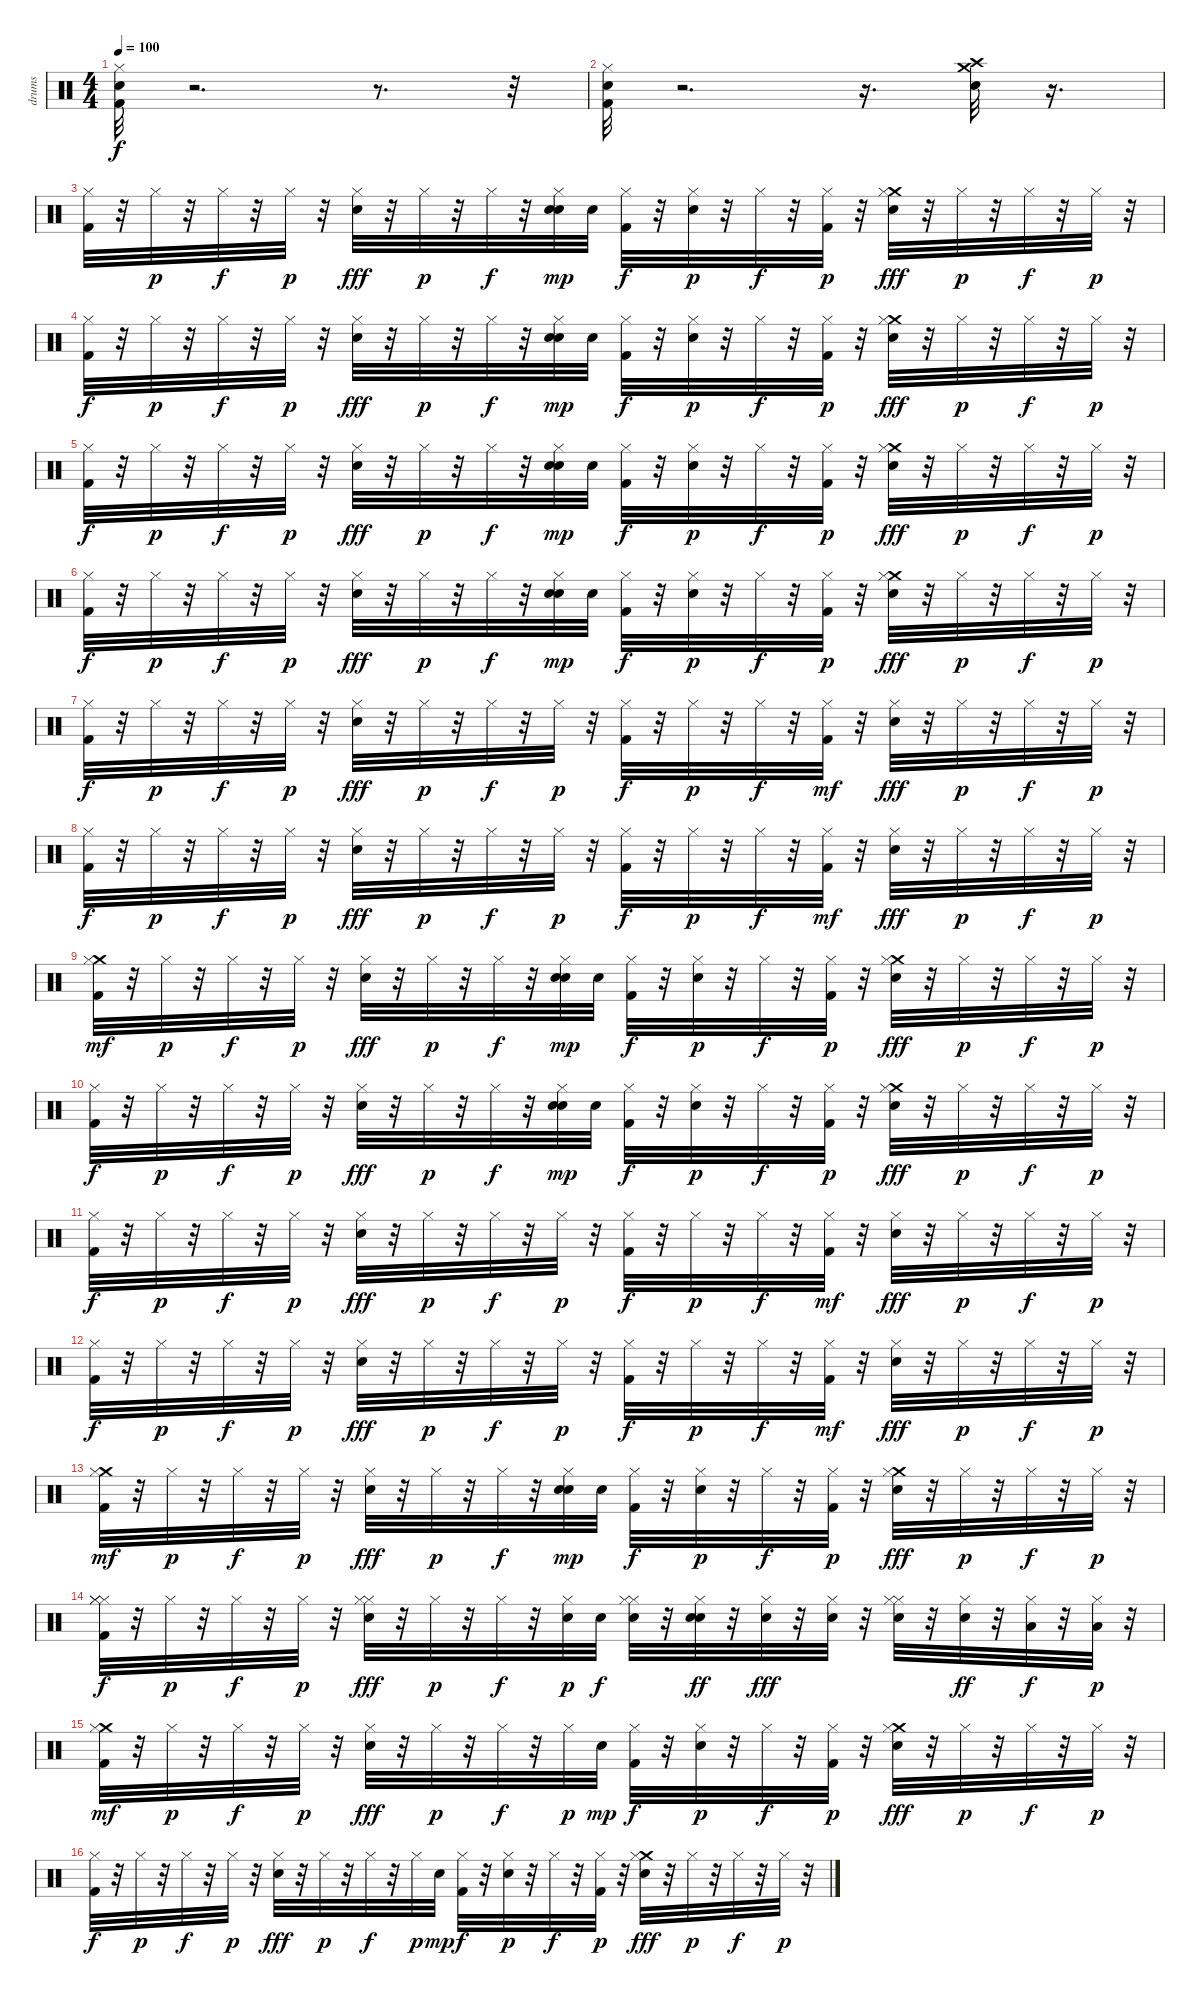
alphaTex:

\track ("drums" "drums") {instrument percussion}
\staff {score}
\articulation defaults
\ts (4 4)
\tempo 100
\clef neutral
\ks c
("Kick (hit) 2" "Electric Snare (hit)" "Hi-Hat (closed)").32{dy f} r.2{d} r.8{d} r.32 |
("Kick (hit) 2" "Electric Snare (hit)" "Hi-Hat (closed)").32 r.2{d} r.16{d} ("Crash medium (hit)" "Electric Snare (hit)" "Crash high (hit)").32 r.16{d} |
("Hi-Hat (closed)" "Kick (hit) 2").32 r.32 "Hi-Hat (closed)".32{dy p} r.32 "Hi-Hat (closed)".32{dy f} r.32 "Hi-Hat (closed)".32{dy p} r.32 ("Hi-Hat (closed)" "Electric Snare (hit)").32{dy fff} r.32 "Hi-Hat (closed)".32{dy p} r.32 "Hi-Hat (closed)".32{dy f} r.32 ("Hi-Hat (closed)" "Electric Snare (hit)" "Electric Snare (hit)").32{dy mp} "Electric Snare (hit)".32 ("Hi-Hat (closed)" "Kick (hit) 2").32{dy f} r.32 ("Hi-Hat (closed)" "Electric Snare (hit)").32{dy p} r.32 "Hi-Hat (closed)".32{dy f} r.32 ("Hi-Hat (closed)" "Kick (hit) 2").32{dy p} r.32 ("Crash medium (hit)" "Hi-Hat (closed)" "Electric Snare (hit)").32{dy fff} r.32 "Hi-Hat (closed)".32{dy p} r.32 "Hi-Hat (closed)".32{dy f} r.32 "Hi-Hat (closed)".32{dy p} r.32 |
("Hi-Hat (closed)" "Kick (hit) 2").32{dy f} r.32 "Hi-Hat (closed)".32{dy p} r.32 "Hi-Hat (closed)".32{dy f} r.32 "Hi-Hat (closed)".32{dy p} r.32 ("Hi-Hat (closed)" "Electric Snare (hit)").32{dy fff} r.32 "Hi-Hat (closed)".32{dy p} r.32 "Hi-Hat (closed)".32{dy f} r.32 ("Hi-Hat (closed)" "Electric Snare (hit)" "Electric Snare (hit)").32{dy mp} "Electric Snare (hit)".32 ("Hi-Hat (closed)" "Kick (hit) 2").32{dy f} r.32 ("Hi-Hat (closed)" "Electric Snare (hit)").32{dy p} r.32 "Hi-Hat (closed)".32{dy f} r.32 ("Hi-Hat (closed)" "Kick (hit) 2").32{dy p} r.32 ("Crash medium (hit)" "Hi-Hat (closed)" "Electric Snare (hit)").32{dy fff} r.32 "Hi-Hat (closed)".32{dy p} r.32 "Hi-Hat (closed)".32{dy f} r.32 "Hi-Hat (closed)".32{dy p} r.32 |
("Hi-Hat (closed)" "Kick (hit) 2").32{dy f} r.32 "Hi-Hat (closed)".32{dy p} r.32 "Hi-Hat (closed)".32{dy f} r.32 "Hi-Hat (closed)".32{dy p} r.32 ("Hi-Hat (closed)" "Electric Snare (hit)").32{dy fff} r.32 "Hi-Hat (closed)".32{dy p} r.32 "Hi-Hat (closed)".32{dy f} r.32 ("Hi-Hat (closed)" "Electric Snare (hit)" "Electric Snare (hit)").32{dy mp} "Electric Snare (hit)".32 ("Hi-Hat (closed)" "Kick (hit) 2").32{dy f} r.32 ("Hi-Hat (closed)" "Electric Snare (hit)").32{dy p} r.32 "Hi-Hat (closed)".32{dy f} r.32 ("Hi-Hat (closed)" "Kick (hit) 2").32{dy p} r.32 ("Crash medium (hit)" "Hi-Hat (closed)" "Electric Snare (hit)").32{dy fff} r.32 "Hi-Hat (closed)".32{dy p} r.32 "Hi-Hat (closed)".32{dy f} r.32 "Hi-Hat (closed)".32{dy p} r.32 |
("Hi-Hat (closed)" "Kick (hit) 2").32{dy f} r.32 "Hi-Hat (closed)".32{dy p} r.32 "Hi-Hat (closed)".32{dy f} r.32 "Hi-Hat (closed)".32{dy p} r.32 ("Hi-Hat (closed)" "Electric Snare (hit)").32{dy fff} r.32 "Hi-Hat (closed)".32{dy p} r.32 "Hi-Hat (closed)".32{dy f} r.32 ("Hi-Hat (closed)" "Electric Snare (hit)" "Electric Snare (hit)").32{dy mp} "Electric Snare (hit)".32 ("Hi-Hat (closed)" "Kick (hit) 2").32{dy f} r.32 ("Hi-Hat (closed)" "Electric Snare (hit)").32{dy p} r.32 "Hi-Hat (closed)".32{dy f} r.32 ("Hi-Hat (closed)" "Kick (hit) 2").32{dy p} r.32 ("Crash medium (hit)" "Hi-Hat (closed)" "Electric Snare (hit)").32{dy fff} r.32 "Hi-Hat (closed)".32{dy p} r.32 "Hi-Hat (closed)".32{dy f} r.32 "Hi-Hat (closed)".32{dy p} r.32 |
("Hi-Hat (closed)" "Kick (hit) 2").32{dy f} r.32 "Hi-Hat (closed)".32{dy p} r.32 "Hi-Hat (closed)".32{dy f} r.32 "Hi-Hat (closed)".32{dy p} r.32 ("Hi-Hat (closed)" "Electric Snare (hit)").32{dy fff} r.32 "Hi-Hat (closed)".32{dy p} r.32 "Hi-Hat (closed)".32{dy f} r.32 "Hi-Hat (closed)".32{dy p} r.32 ("Hi-Hat (closed)" "Kick (hit) 2").32{dy f} r.32 "Hi-Hat (closed)".32{dy p} r.32 "Hi-Hat (closed)".32{dy f} r.32 ("Hi-Hat (closed)" "Kick (hit) 2").32{dy mf} r.32 ("Hi-Hat (closed)" "Electric Snare (hit)").32{dy fff} r.32 "Hi-Hat (closed)".32{dy p} r.32 "Hi-Hat (closed)".32{dy f} r.32 "Hi-Hat (closed)".32{dy p} r.32 |
("Hi-Hat (closed)" "Kick (hit) 2").32{dy f} r.32 "Hi-Hat (closed)".32{dy p} r.32 "Hi-Hat (closed)".32{dy f} r.32 "Hi-Hat (closed)".32{dy p} r.32 ("Hi-Hat (closed)" "Electric Snare (hit)").32{dy fff} r.32 "Hi-Hat (closed)".32{dy p} r.32 "Hi-Hat (closed)".32{dy f} r.32 "Hi-Hat (closed)".32{dy p} r.32 ("Hi-Hat (closed)" "Kick (hit) 2").32{dy f} r.32 "Hi-Hat (closed)".32{dy p} r.32 "Hi-Hat (closed)".32{dy f} r.32 ("Hi-Hat (closed)" "Kick (hit) 2").32{dy mf} r.32 ("Hi-Hat (closed)" "Electric Snare (hit)").32{dy fff} r.32 "Hi-Hat (closed)".32{dy p} r.32 "Hi-Hat (closed)".32{dy f} r.32 "Hi-Hat (closed)".32{dy p} r.32 |
("Crash medium (hit)" "Hi-Hat (closed)" "Kick (hit) 2").32{dy mf} r.32 "Hi-Hat (closed)".32{dy p} r.32 "Hi-Hat (closed)".32{dy f} r.32 "Hi-Hat (closed)".32{dy p} r.32 ("Hi-Hat (closed)" "Electric Snare (hit)").32{dy fff} r.32 "Hi-Hat (closed)".32{dy p} r.32 "Hi-Hat (closed)".32{dy f} r.32 ("Hi-Hat (closed)" "Electric Snare (hit)" "Electric Snare (hit)").32{dy mp} "Electric Snare (hit)".32 ("Hi-Hat (closed)" "Kick (hit) 2").32{dy f} r.32 ("Hi-Hat (closed)" "Electric Snare (hit)").32{dy p} r.32 "Hi-Hat (closed)".32{dy f} r.32 ("Hi-Hat (closed)" "Kick (hit) 2").32{dy p} r.32 ("Crash medium (hit)" "Hi-Hat (closed)" "Electric Snare (hit)").32{dy fff} r.32 "Hi-Hat (closed)".32{dy p} r.32 "Hi-Hat (closed)".32{dy f} r.32 "Hi-Hat (closed)".32{dy p} r.32 |
("Hi-Hat (closed)" "Kick (hit) 2").32{dy f} r.32 "Hi-Hat (closed)".32{dy p} r.32 "Hi-Hat (closed)".32{dy f} r.32 "Hi-Hat (closed)".32{dy p} r.32 ("Hi-Hat (closed)" "Electric Snare (hit)").32{dy fff} r.32 "Hi-Hat (closed)".32{dy p} r.32 "Hi-Hat (closed)".32{dy f} r.32 ("Hi-Hat (closed)" "Electric Snare (hit)" "Electric Snare (hit)").32{dy mp} "Electric Snare (hit)".32 ("Hi-Hat (closed)" "Kick (hit) 2").32{dy f} r.32 ("Hi-Hat (closed)" "Electric Snare (hit)").32{dy p} r.32 "Hi-Hat (closed)".32{dy f} r.32 ("Hi-Hat (closed)" "Kick (hit) 2").32{dy p} r.32 ("Crash medium (hit)" "Hi-Hat (closed)" "Electric Snare (hit)").32{dy fff} r.32 "Hi-Hat (closed)".32{dy p} r.32 "Hi-Hat (closed)".32{dy f} r.32 "Hi-Hat (closed)".32{dy p} r.32 |
("Hi-Hat (closed)" "Kick (hit) 2").32{dy f} r.32 "Hi-Hat (closed)".32{dy p} r.32 "Hi-Hat (closed)".32{dy f} r.32 "Hi-Hat (closed)".32{dy p} r.32 ("Hi-Hat (closed)" "Electric Snare (hit)").32{dy fff} r.32 "Hi-Hat (closed)".32{dy p} r.32 "Hi-Hat (closed)".32{dy f} r.32 "Hi-Hat (closed)".32{dy p} r.32 ("Hi-Hat (closed)" "Kick (hit) 2").32{dy f} r.32 "Hi-Hat (closed)".32{dy p} r.32 "Hi-Hat (closed)".32{dy f} r.32 ("Hi-Hat (closed)" "Kick (hit) 2").32{dy mf} r.32 ("Hi-Hat (closed)" "Electric Snare (hit)").32{dy fff} r.32 "Hi-Hat (closed)".32{dy p} r.32 "Hi-Hat (closed)".32{dy f} r.32 "Hi-Hat (closed)".32{dy p} r.32 |
("Hi-Hat (closed)" "Kick (hit) 2").32{dy f} r.32 "Hi-Hat (closed)".32{dy p} r.32 "Hi-Hat (closed)".32{dy f} r.32 "Hi-Hat (closed)".32{dy p} r.32 ("Hi-Hat (closed)" "Electric Snare (hit)").32{dy fff} r.32 "Hi-Hat (closed)".32{dy p} r.32 "Hi-Hat (closed)".32{dy f} r.32 "Hi-Hat (closed)".32{dy p} r.32 ("Hi-Hat (closed)" "Kick (hit) 2").32{dy f} r.32 "Hi-Hat (closed)".32{dy p} r.32 "Hi-Hat (closed)".32{dy f} r.32 ("Hi-Hat (closed)" "Kick (hit) 2").32{dy mf} r.32 ("Hi-Hat (closed)" "Electric Snare (hit)").32{dy fff} r.32 "Hi-Hat (closed)".32{dy p} r.32 "Hi-Hat (closed)".32{dy f} r.32 "Hi-Hat (closed)".32{dy p} r.32 |
("Crash medium (hit)" "Hi-Hat (closed)" "Kick (hit) 2").32{dy mf} r.32 "Hi-Hat (closed)".32{dy p} r.32 "Hi-Hat (closed)".32{dy f} r.32 "Hi-Hat (closed)".32{dy p} r.32 ("Hi-Hat (closed)" "Electric Snare (hit)").32{dy fff} r.32 "Hi-Hat (closed)".32{dy p} r.32 "Hi-Hat (closed)".32{dy f} r.32 ("Hi-Hat (closed)" "Electric Snare (hit)" "Electric Snare (hit)").32{dy mp} "Electric Snare (hit)".32 ("Hi-Hat (closed)" "Kick (hit) 2").32{dy f} r.32 ("Hi-Hat (closed)" "Electric Snare (hit)").32{dy p} r.32 "Hi-Hat (closed)".32{dy f} r.32 ("Hi-Hat (closed)" "Kick (hit) 2").32{dy p} r.32 ("Crash medium (hit)" "Hi-Hat (closed)" "Electric Snare (hit)").32{dy fff} r.32 "Hi-Hat (closed)".32{dy p} r.32 "Hi-Hat (closed)".32{dy f} r.32 "Hi-Hat (closed)".32{dy p} r.32 |
("Hi-Hat (closed)" "Hi-Hat (closed)" "Hi-Hat (closed)" "Kick (hit) 2").32{dy f} r.32 "Hi-Hat (closed)".32{dy p} r.32 "Hi-Hat (closed)".32{dy f} r.32 "Hi-Hat (closed)".32{dy p} r.32 ("Hi-Hat (closed)" "Hi-Hat (closed)" "Electric Snare (hit)").32{dy fff} r.32 "Hi-Hat (closed)".32{dy p} r.32 "Hi-Hat (closed)".32{dy f} r.32 ("Hi-Hat (closed)" "Snare (hit) 2").32{dy p} "Snare (hit) 2".32{dy f} ("Hi-Hat (closed)" "Hi-Hat (closed)" "Electric Snare (hit)").32 r.32 ("Hi-Hat (closed)" "Electric Snare (hit)" "Electric Snare (hit)").32{dy ff} r.32 ("Hi-Hat (closed)" "Electric Snare (hit)").32{dy fff} r.32 ("Hi-Hat (closed)" "Electric Snare (hit)").32 r.32 ("Hi-Hat (closed)" "Hi-Hat (closed)" "Snare (hit) 2").32 r.32 ("Hi-Hat (closed)" "Snare (hit) 2").32{dy ff} r.32 ("Hi-Hat (closed)" "Low Tom (hit)").32{dy f} r.32 ("Hi-Hat (closed)" "Low Tom (hit)").32{dy p} r.32 |
("Crash medium (hit)" "Hi-Hat (closed)" "Kick (hit) 2").32{dy mf} r.32 "Hi-Hat (closed)".32{dy p} r.32 "Hi-Hat (closed)".32{dy f} r.32 "Hi-Hat (closed)".32{dy p} r.32 ("Hi-Hat (closed)" "Electric Snare (hit)").32{dy fff} r.32 "Hi-Hat (closed)".32{dy p} r.32 "Hi-Hat (closed)".32{dy f} r.32 "Hi-Hat (closed)".32{dy p} "Electric Snare (hit)".32{dy mp} ("Hi-Hat (closed)" "Kick (hit) 2").32{dy f} r.32 ("Hi-Hat (closed)" "Electric Snare (hit)").32{dy p} r.32 "Hi-Hat (closed)".32{dy f} r.32 ("Hi-Hat (closed)" "Kick (hit) 2").32{dy p} r.32 ("Crash medium (hit)" "Hi-Hat (closed)" "Electric Snare (hit)").32{dy fff} r.32 "Hi-Hat (closed)".32{dy p} r.32 "Hi-Hat (closed)".32{dy f} r.32 "Hi-Hat (closed)".32{dy p} r.32 |
("Hi-Hat (closed)" "Kick (hit) 2").32{dy f} r.32 "Hi-Hat (closed)".32{dy p} r.32 "Hi-Hat (closed)".32{dy f} r.32 "Hi-Hat (closed)".32{dy p} r.32 ("Hi-Hat (closed)" "Electric Snare (hit)").32{dy fff} r.32 "Hi-Hat (closed)".32{dy p} r.32 "Hi-Hat (closed)".32{dy f} r.32 "Hi-Hat (closed)".32{dy p} "Electric Snare (hit)".32{dy mp} ("Hi-Hat (closed)" "Kick (hit) 2").32{dy f} r.32 ("Hi-Hat (closed)" "Electric Snare (hit)").32{dy p} r.32 "Hi-Hat (closed)".32{dy f} r.32 ("Hi-Hat (closed)" "Kick (hit) 2").32{dy p} r.32 ("Crash medium (hit)" "Hi-Hat (closed)" "Electric Snare (hit)").32{dy fff} r.32 "Hi-Hat (closed)".32{dy p} r.32 "Hi-Hat (closed)".32{dy f} r.32 "Hi-Hat (closed)".32{dy p} r.32
